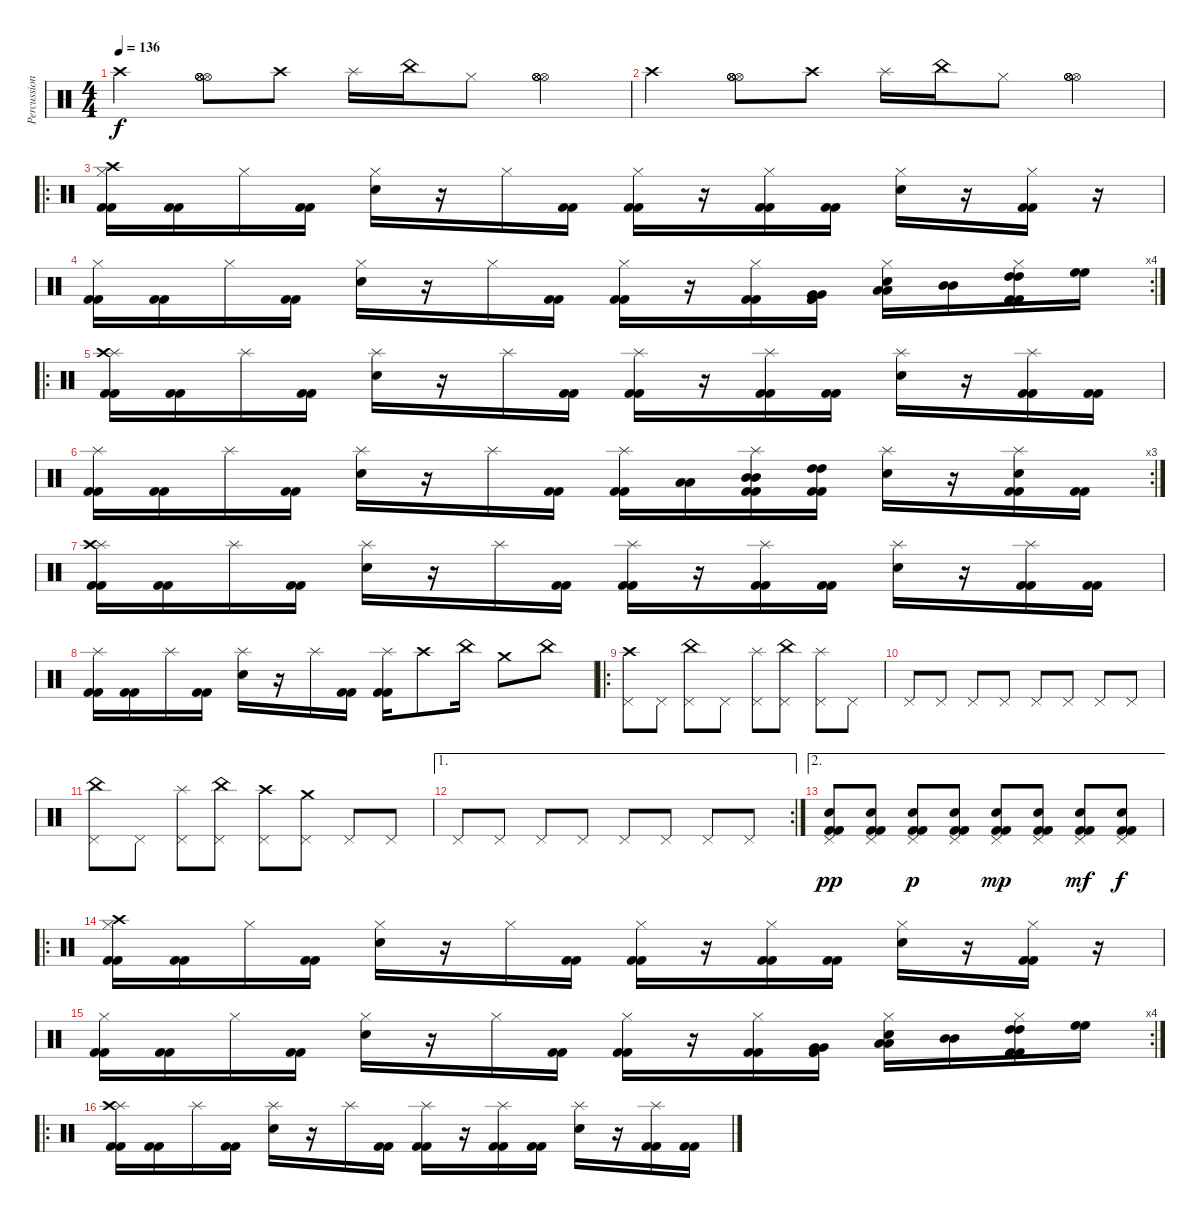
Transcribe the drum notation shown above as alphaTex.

\track ("Percussion" "Percussion") {instrument percussion}
\staff {score}
\articulation defaults
\ts (4 4)
\tempo 136
\clef neutral
\ks c "Crash high (hit)".4{dy f}
("Hi-Hat (open)" "Hi-Hat (open)" "Hi-Hat (open)" "Hi-Hat (open)").8 "Crash high (hit)".8 "Splash (hit)".16 "China (hit)".16 "Hi-Hat (closed)".8 ("Hi-Hat (open)" "Hi-Hat (open)" "Hi-Hat (open)" "Hi-Hat (open)").4 |
"Crash high (hit)".4 ("Hi-Hat (open)" "Hi-Hat (open)" "Hi-Hat (open)" "Hi-Hat (open)").8 "Crash high (hit)".8 "Splash (hit)".16 "China (hit)".16 "Hi-Hat (closed)".8 ("Hi-Hat (open)" "Hi-Hat (open)" "Hi-Hat (open)" "Hi-Hat (open)").4 |
\ro
("Hi-Hat (closed)" "Crash high (hit)" "Kick (hit) 2" "Kick (hit) 2").16 ("Kick (hit) 2" "Kick (hit) 2").16 "Hi-Hat (closed)".16 ("Kick (hit) 2" "Kick (hit) 2").16 ("Hi-Hat (closed)" "Snare (hit) 2").16 r.16 "Hi-Hat (closed)".16 ("Kick (hit) 2" "Kick (hit) 2").16 ("Hi-Hat (closed)" "Kick (hit) 2" "Kick (hit) 2").16 r.16 ("Hi-Hat (closed)" "Kick (hit) 2" "Kick (hit) 2").16 ("Kick (hit) 2" "Kick (hit) 2").16 ("Hi-Hat (closed)" "Snare (hit) 2").16 r.16 ("Hi-Hat (closed)" "Kick (hit) 2" "Kick (hit) 2").16 r.16 |
\rc 4
("Hi-Hat (closed)" "Kick (hit) 2" "Kick (hit) 2").16 ("Kick (hit) 2" "Kick (hit) 2").16 "Hi-Hat (closed)".16 ("Kick (hit) 2" "Kick (hit) 2").16 ("Hi-Hat (closed)" "Snare (hit) 2").16 r.16 "Hi-Hat (closed)".16 ("Kick (hit) 2" "Kick (hit) 2").16 ("Hi-Hat (closed)" "Kick (hit) 2" "Kick (hit) 2").16 r.16 ("Hi-Hat (closed)" "Kick (hit) 2" "Kick (hit) 2").16 ("Very Low Tom (hit)" "Very Low Tom (hit)" "Kick (hit) 2" "Kick (hit) 2").16 ("Hi-Hat (closed)" "Low Tom (hit)" "Low Tom (hit)" "Snare (hit) 2").16 ("Mid Tom (hit)" "Mid Tom (hit)").16 ("Hi-Hat (closed)" "High Tom (hit)" "High Tom (hit)" "Kick (hit) 2" "Kick (hit) 2").16 ("High Floor Tom (hit)" "High Floor Tom (hit)").16 |
\ro
("Splash (hit)" "Crash high (hit)" "Kick (hit) 2" "Kick (hit) 2").16 ("Kick (hit) 2" "Kick (hit) 2").16 "Splash (hit)".16 ("Kick (hit) 2" "Kick (hit) 2").16 ("Splash (hit)" "Snare (hit) 2").16 r.16 "Splash (hit)".16 ("Kick (hit) 2" "Kick (hit) 2").16 ("Splash (hit)" "Kick (hit) 2" "Kick (hit) 2").16 r.16 ("Splash (hit)" "Kick (hit) 2" "Kick (hit) 2").16 ("Kick (hit) 2" "Kick (hit) 2").16 ("Splash (hit)" "Snare (hit) 2").16 r.16 ("Splash (hit)" "Kick (hit) 2" "Kick (hit) 2").16 ("Kick (hit) 2" "Kick (hit) 2").16 |
\rc 3
("Splash (hit)" "Kick (hit) 2" "Kick (hit) 2").16 ("Kick (hit) 2" "Kick (hit) 2").16 "Splash (hit)".16 ("Kick (hit) 2" "Kick (hit) 2").16 ("Splash (hit)" "Snare (hit) 2").16 r.16 "Splash (hit)".16 ("Kick (hit) 2" "Kick (hit) 2").16 ("Splash (hit)" "Kick (hit) 2" "Kick (hit) 2").16 ("Low Tom (hit)" "Low Tom (hit)").16 ("Splash (hit)" "Mid Tom (hit)" "Mid Tom (hit)" "Kick (hit) 2" "Kick (hit) 2").16 ("High Tom (hit)" "High Tom (hit)" "Kick (hit) 2" "Kick (hit) 2").16 ("Splash (hit)" "Snare (hit) 2").16 r.16 ("Splash (hit)" "Snare (hit) 2" "Kick (hit) 2" "Kick (hit) 2").16 ("Kick (hit) 2" "Kick (hit) 2").16 |
("Splash (hit)" "Crash high (hit)" "Kick (hit) 2" "Kick (hit) 2").16 ("Kick (hit) 2" "Kick (hit) 2").16 "Splash (hit)".16 ("Kick (hit) 2" "Kick (hit) 2").16 ("Splash (hit)" "Snare (hit) 2").16 r.16 "Splash (hit)".16 ("Kick (hit) 2" "Kick (hit) 2").16 ("Splash (hit)" "Kick (hit) 2" "Kick (hit) 2").16 r.16 ("Splash (hit)" "Kick (hit) 2" "Kick (hit) 2").16 ("Kick (hit) 2" "Kick (hit) 2").16 ("Splash (hit)" "Snare (hit) 2").16 r.16 ("Splash (hit)" "Kick (hit) 2" "Kick (hit) 2").16 ("Kick (hit) 2" "Kick (hit) 2").16 |
("Splash (hit)" "Kick (hit) 2" "Kick (hit) 2").16 ("Kick (hit) 2" "Kick (hit) 2").16 "Splash (hit)".16 ("Kick (hit) 2" "Kick (hit) 2").16 ("Splash (hit)" "Snare (hit) 2").16 r.16 "Splash (hit)".16 ("Kick (hit) 2" "Kick (hit) 2").16 ("Splash (hit)" "Kick (hit) 2" "Kick (hit) 2").16 "Crash high (hit)".8 "China (hit)".16 "Crash medium (hit)".8 "China (hit)".8 |
\ro
("Pedal Hi-Hat (hit)" "Crash high (hit)").8 "Pedal Hi-Hat (hit)".8 ("Pedal Hi-Hat (hit)" "China (hit)").8 "Pedal Hi-Hat (hit)".8 ("Pedal Hi-Hat (hit)" "Splash (hit)").8 ("Pedal Hi-Hat (hit)" "China (hit)").8 ("Pedal Hi-Hat (hit)" "Splash (hit)").8 "Pedal Hi-Hat (hit)".8 |
"Pedal Hi-Hat (hit)".8 "Pedal Hi-Hat (hit)".8 "Pedal Hi-Hat (hit)".8 "Pedal Hi-Hat (hit)".8 "Pedal Hi-Hat (hit)".8 "Pedal Hi-Hat (hit)".8 "Pedal Hi-Hat (hit)".8 "Pedal Hi-Hat (hit)".8 |
("Pedal Hi-Hat (hit)" "China (hit)").8 "Pedal Hi-Hat (hit)".8 ("Pedal Hi-Hat (hit)" "Splash (hit)").8 ("Pedal Hi-Hat (hit)" "China (hit)").8 ("Pedal Hi-Hat (hit)" "Crash high (hit)").8 ("Pedal Hi-Hat (hit)" "Crash medium (hit)").8 "Pedal Hi-Hat (hit)".8 "Pedal Hi-Hat (hit)".8 |
\ae 1
\rc 2 "Pedal Hi-Hat (hit)".8 "Pedal Hi-Hat (hit)".8 "Pedal Hi-Hat (hit)".8 "Pedal Hi-Hat (hit)".8 "Pedal Hi-Hat (hit)".8 "Pedal Hi-Hat (hit)".8 "Pedal Hi-Hat (hit)".8 "Pedal Hi-Hat (hit)".8
|
\ae 2
("Pedal Hi-Hat (hit)" "Snare (hit) 2" "Kick (hit) 2" "Kick (hit) 2").8{dy pp} ("Pedal Hi-Hat (hit)" "Snare (hit) 2" "Kick (hit) 2" "Kick (hit) 2").8 ("Pedal Hi-Hat (hit)" "Snare (hit) 2" "Kick (hit) 2" "Kick (hit) 2").8{dy p} ("Pedal Hi-Hat (hit)" "Snare (hit) 2" "Kick (hit) 2" "Kick (hit) 2").8 ("Pedal Hi-Hat (hit)" "Snare (hit) 2" "Kick (hit) 2" "Kick (hit) 2").8{dy mp} ("Pedal Hi-Hat (hit)" "Snare (hit) 2" "Kick (hit) 2" "Kick (hit) 2").8 ("Pedal Hi-Hat (hit)" "Snare (hit) 2" "Kick (hit) 2" "Kick (hit) 2").8{dy mf} ("Pedal Hi-Hat (hit)" "Snare (hit) 2" "Kick (hit) 2" "Kick (hit) 2").8{dy f} |
\ro
("Hi-Hat (closed)" "Crash high (hit)" "Kick (hit) 2" "Kick (hit) 2").16 ("Kick (hit) 2" "Kick (hit) 2").16 "Hi-Hat (closed)".16 ("Kick (hit) 2" "Kick (hit) 2").16 ("Hi-Hat (closed)" "Snare (hit) 2").16 r.16 "Hi-Hat (closed)".16 ("Kick (hit) 2" "Kick (hit) 2").16 ("Hi-Hat (closed)" "Kick (hit) 2" "Kick (hit) 2").16 r.16 ("Hi-Hat (closed)" "Kick (hit) 2" "Kick (hit) 2").16 ("Kick (hit) 2" "Kick (hit) 2").16 ("Hi-Hat (closed)" "Snare (hit) 2").16 r.16 ("Hi-Hat (closed)" "Kick (hit) 2" "Kick (hit) 2").16 r.16 |
\rc 4
("Hi-Hat (closed)" "Kick (hit) 2" "Kick (hit) 2").16 ("Kick (hit) 2" "Kick (hit) 2").16 "Hi-Hat (closed)".16 ("Kick (hit) 2" "Kick (hit) 2").16 ("Hi-Hat (closed)" "Snare (hit) 2").16 r.16 "Hi-Hat (closed)".16 ("Kick (hit) 2" "Kick (hit) 2").16 ("Hi-Hat (closed)" "Kick (hit) 2" "Kick (hit) 2").16 r.16 ("Hi-Hat (closed)" "Kick (hit) 2" "Kick (hit) 2").16 ("Very Low Tom (hit)" "Very Low Tom (hit)" "Kick (hit) 2" "Kick (hit) 2").16 ("Hi-Hat (closed)" "Low Tom (hit)" "Low Tom (hit)" "Snare (hit) 2").16 ("Mid Tom (hit)" "Mid Tom (hit)").16 ("Hi-Hat (closed)" "High Tom (hit)" "High Tom (hit)" "Kick (hit) 2" "Kick (hit) 2").16 ("High Floor Tom (hit)" "High Floor Tom (hit)").16 |
\ro
("Splash (hit)" "Crash high (hit)" "Kick (hit) 2" "Kick (hit) 2").16 ("Kick (hit) 2" "Kick (hit) 2").16 "Splash (hit)".16 ("Kick (hit) 2" "Kick (hit) 2").16 ("Splash (hit)" "Snare (hit) 2").16 r.16 "Splash (hit)".16 ("Kick (hit) 2" "Kick (hit) 2").16 ("Splash (hit)" "Kick (hit) 2" "Kick (hit) 2").16 r.16 ("Splash (hit)" "Kick (hit) 2" "Kick (hit) 2").16 ("Kick (hit) 2" "Kick (hit) 2").16 ("Splash (hit)" "Snare (hit) 2").16 r.16 ("Splash (hit)" "Kick (hit) 2" "Kick (hit) 2").16 ("Kick (hit) 2" "Kick (hit) 2").16
